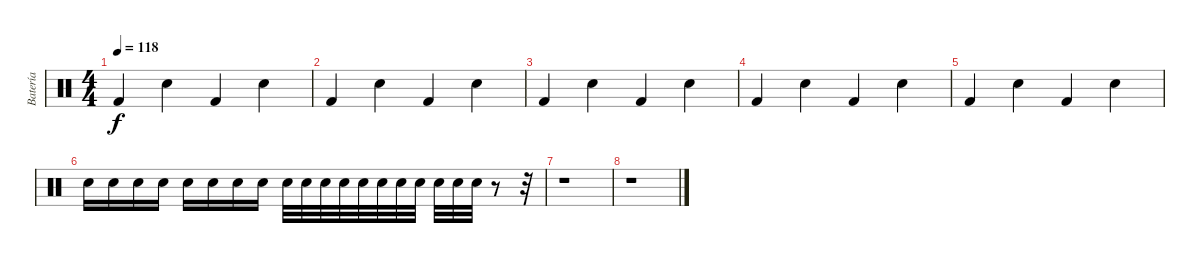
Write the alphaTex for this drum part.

\track ("Batería" "Batería") {instrument percussion}
\staff {score}
\articulation defaults
\ts (4 4)
\tempo 118
\clef neutral
\ks c "Kick (hit) 2".4{dy f} "Hand Clap (hit)".4 "Kick (hit) 2".4 "Hand Clap (hit)".4
|
"Kick (hit) 2".4 "Hand Clap (hit)".4 "Kick (hit) 2".4 "Hand Clap (hit)".4 |
"Kick (hit) 2".4 "Hand Clap (hit)".4 "Kick (hit) 2".4 "Hand Clap (hit)".4 |
"Kick (hit) 2".4 "Hand Clap (hit)".4 "Kick (hit) 2".4 "Hand Clap (hit)".4 |
"Kick (hit) 2".4 "Hand Clap (hit)".4 "Kick (hit) 2".4 "Hand Clap (hit)".4 |
"Electric Snare (hit)".16 "Electric Snare (hit)".16 "Electric Snare (hit)".16 "Electric Snare (hit)".16 "Electric Snare (hit)".16 "Electric Snare (hit)".16 "Electric Snare (hit)".16 "Electric Snare (hit)".16 "Snare (hit) 2".32 "Snare (hit) 2".32 "Snare (hit) 2".32 "Snare (hit) 2".32 "Snare (hit) 2".32 "Snare (hit) 2".32 "Snare (hit) 2".32 "Snare (hit) 2".32 "Snare (hit) 2".32 "Snare (hit) 2".32 "Snare (hit) 2".32 r.8 r.32 |
r.1 |
r.1
